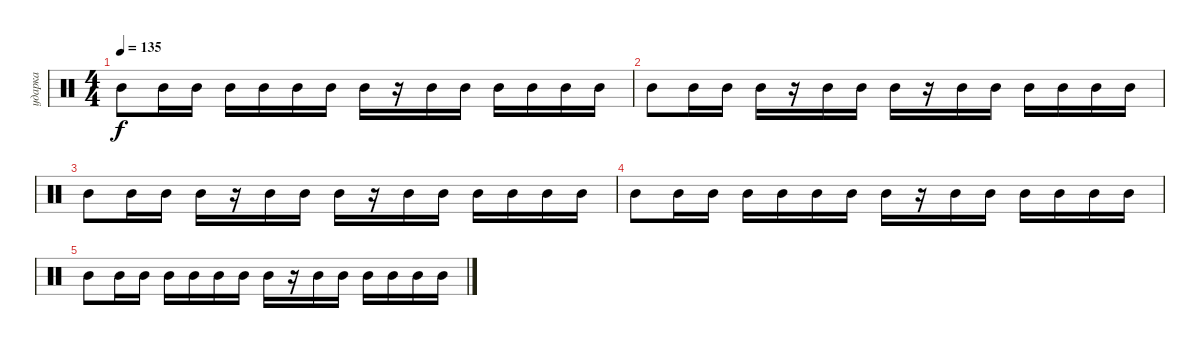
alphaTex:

\track ("ударка" "ударка") {instrument percussion}
\staff {score}
\articulation defaults
\ts (4 4)
\tempo 135
\clef neutral
\ks c "Mid Tom (hit)".8{dy f} "Mid Tom (hit)".16 "Mid Tom (hit)".16 "Mid Tom (hit)".16 "Mid Tom (hit)".16 "Mid Tom (hit)".16 "Mid Tom (hit)".16 "Mid Tom (hit)".16
r.16 "Mid Tom (hit)".16 "Mid Tom (hit)".16 "Mid Tom (hit)".16 "Mid Tom (hit)".16 "Mid Tom (hit)".16 "Mid Tom (hit)".16 |
"Mid Tom (hit)".8 "Mid Tom (hit)".16 "Mid Tom (hit)".16 "Mid Tom (hit)".16 r.16 "Mid Tom (hit)".16 "Mid Tom (hit)".16 "Mid Tom (hit)".16 r.16 "Mid Tom (hit)".16 "Mid Tom (hit)".16 "Mid Tom (hit)".16 "Mid Tom (hit)".16 "Mid Tom (hit)".16 "Mid Tom (hit)".16 |
"Mid Tom (hit)".8 "Mid Tom (hit)".16 "Mid Tom (hit)".16 "Mid Tom (hit)".16 r.16 "Mid Tom (hit)".16 "Mid Tom (hit)".16 "Mid Tom (hit)".16 r.16 "Mid Tom (hit)".16 "Mid Tom (hit)".16 "Mid Tom (hit)".16 "Mid Tom (hit)".16 "Mid Tom (hit)".16 "Mid Tom (hit)".16 |
"Mid Tom (hit)".8 "Mid Tom (hit)".16 "Mid Tom (hit)".16 "Mid Tom (hit)".16 "Mid Tom (hit)".16 "Mid Tom (hit)".16 "Mid Tom (hit)".16 "Mid Tom (hit)".16 r.16 "Mid Tom (hit)".16 "Mid Tom (hit)".16 "Mid Tom (hit)".16 "Mid Tom (hit)".16 "Mid Tom (hit)".16 "Mid Tom (hit)".16 |
"Mid Tom (hit)".8 "Mid Tom (hit)".16 "Mid Tom (hit)".16 "Mid Tom (hit)".16 "Mid Tom (hit)".16 "Mid Tom (hit)".16 "Mid Tom (hit)".16 "Mid Tom (hit)".16 r.16 "Mid Tom (hit)".16 "Mid Tom (hit)".16 "Mid Tom (hit)".16 "Mid Tom (hit)".16 "Mid Tom (hit)".16 "Mid Tom (hit)".16
